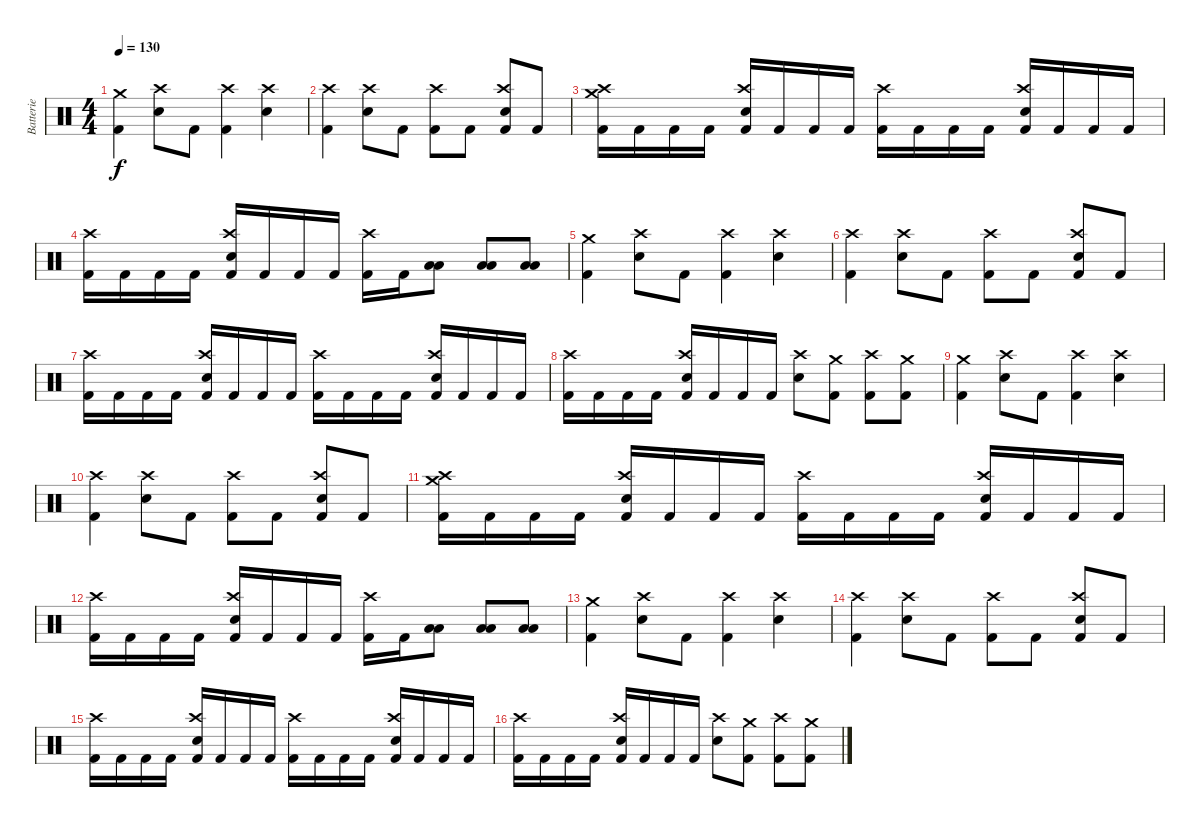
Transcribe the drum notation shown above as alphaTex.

\track ("Batterie" "Batterie") {instrument percussion}
\staff {score}
\articulation defaults
\ts (4 4)
\tempo 130
\clef neutral
\ks c
("Crash medium (hit)" "Kick (hit) 2").4{dy f} ("Crash high (hit)" "Electric Snare (hit)").8 "Kick (hit) 2".8 ("Crash high (hit)" "Kick (hit) 2").4 ("Crash high (hit)" "Electric Snare (hit)").4 |
("Crash high (hit)" "Kick (hit) 2").4 ("Crash high (hit)" "Electric Snare (hit)").8 "Kick (hit) 2".8 ("Crash high (hit)" "Kick (hit) 2").8 "Kick (hit) 2".8 ("Crash high (hit)" "Electric Snare (hit)" "Kick (hit) 2").8 "Kick (hit) 2".8 |
("Crash medium (hit)" "Crash high (hit)" "Kick (hit) 2").16 "Kick (hit) 2".16 "Kick (hit) 2".16 "Kick (hit) 2".16 ("Crash high (hit)" "Electric Snare (hit)" "Kick (hit) 2").16 "Kick (hit) 2".16 "Kick (hit) 2".16 "Kick (hit) 2".16 ("Crash high (hit)" "Kick (hit) 2").16 "Kick (hit) 2".16 "Kick (hit) 2".16 "Kick (hit) 2".16 ("Crash high (hit)" "Electric Snare (hit)" "Kick (hit) 2").16 "Kick (hit) 2".16 "Kick (hit) 2".16 "Kick (hit) 2".16 |
("Crash high (hit)" "Kick (hit) 2").16 "Kick (hit) 2".16 "Kick (hit) 2".16 "Kick (hit) 2".16 ("Crash high (hit)" "Electric Snare (hit)" "Kick (hit) 2").16 "Kick (hit) 2".16 "Kick (hit) 2".16 "Kick (hit) 2".16 ("Crash high (hit)" "Kick (hit) 2").16 "Kick (hit) 2".16 ("Low Tom (hit)" "Low Floor Tom (hit)").8{bu 60} ("Low Tom (hit)" "Low Floor Tom (hit)").8{bu 60} ("Low Tom (hit)" "Low Floor Tom (hit)").8{bu 60} |
("Crash medium (hit)" "Kick (hit) 2").4 ("Crash high (hit)" "Electric Snare (hit)").8 "Kick (hit) 2".8 ("Crash high (hit)" "Kick (hit) 2").4 ("Crash high (hit)" "Electric Snare (hit)").4 |
("Crash high (hit)" "Kick (hit) 2").4 ("Crash high (hit)" "Electric Snare (hit)").8 "Kick (hit) 2".8 ("Crash high (hit)" "Kick (hit) 2").8 "Kick (hit) 2".8 ("Crash high (hit)" "Electric Snare (hit)" "Kick (hit) 2").8 "Kick (hit) 2".8 |
("Crash high (hit)" "Kick (hit) 2").16 "Kick (hit) 2".16 "Kick (hit) 2".16 "Kick (hit) 2".16 ("Crash high (hit)" "Electric Snare (hit)" "Kick (hit) 2").16 "Kick (hit) 2".16 "Kick (hit) 2".16 "Kick (hit) 2".16 ("Crash high (hit)" "Kick (hit) 2").16 "Kick (hit) 2".16 "Kick (hit) 2".16 "Kick (hit) 2".16 ("Crash high (hit)" "Electric Snare (hit)" "Kick (hit) 2").16 "Kick (hit) 2".16 "Kick (hit) 2".16 "Kick (hit) 2".16 |
("Crash high (hit)" "Kick (hit) 2").16 "Kick (hit) 2".16 "Kick (hit) 2".16 "Kick (hit) 2".16 ("Crash high (hit)" "Electric Snare (hit)" "Kick (hit) 2").16 "Kick (hit) 2".16 "Kick (hit) 2".16 "Kick (hit) 2".16 ("Crash high (hit)" "Electric Snare (hit)").8 ("Crash medium (hit)" "Kick (hit) 2").8 ("Crash high (hit)" "Kick (hit) 2").8 ("Crash medium (hit)" "Kick (hit) 2").8 |
("Crash medium (hit)" "Kick (hit) 2").4 ("Crash high (hit)" "Electric Snare (hit)").8 "Kick (hit) 2".8 ("Crash high (hit)" "Kick (hit) 2").4 ("Crash high (hit)" "Electric Snare (hit)").4 |
("Crash high (hit)" "Kick (hit) 2").4 ("Crash high (hit)" "Electric Snare (hit)").8 "Kick (hit) 2".8 ("Crash high (hit)" "Kick (hit) 2").8 "Kick (hit) 2".8 ("Crash high (hit)" "Electric Snare (hit)" "Kick (hit) 2").8 "Kick (hit) 2".8 |
("Crash medium (hit)" "Crash high (hit)" "Kick (hit) 2").16 "Kick (hit) 2".16 "Kick (hit) 2".16 "Kick (hit) 2".16 ("Crash high (hit)" "Electric Snare (hit)" "Kick (hit) 2").16 "Kick (hit) 2".16 "Kick (hit) 2".16 "Kick (hit) 2".16 ("Crash high (hit)" "Kick (hit) 2").16 "Kick (hit) 2".16 "Kick (hit) 2".16 "Kick (hit) 2".16 ("Crash high (hit)" "Electric Snare (hit)" "Kick (hit) 2").16 "Kick (hit) 2".16 "Kick (hit) 2".16 "Kick (hit) 2".16 |
("Crash high (hit)" "Kick (hit) 2").16 "Kick (hit) 2".16 "Kick (hit) 2".16 "Kick (hit) 2".16 ("Crash high (hit)" "Electric Snare (hit)" "Kick (hit) 2").16 "Kick (hit) 2".16 "Kick (hit) 2".16 "Kick (hit) 2".16 ("Crash high (hit)" "Kick (hit) 2").16 "Kick (hit) 2".16 ("Low Tom (hit)" "Low Floor Tom (hit)").8{bu 60} ("Low Tom (hit)" "Low Floor Tom (hit)").8{bu 60} ("Low Tom (hit)" "Low Floor Tom (hit)").8{bu 60} |
("Crash medium (hit)" "Kick (hit) 2").4 ("Crash high (hit)" "Electric Snare (hit)").8 "Kick (hit) 2".8 ("Crash high (hit)" "Kick (hit) 2").4 ("Crash high (hit)" "Electric Snare (hit)").4 |
("Crash high (hit)" "Kick (hit) 2").4 ("Crash high (hit)" "Electric Snare (hit)").8 "Kick (hit) 2".8 ("Crash high (hit)" "Kick (hit) 2").8 "Kick (hit) 2".8 ("Crash high (hit)" "Electric Snare (hit)" "Kick (hit) 2").8 "Kick (hit) 2".8 |
("Crash high (hit)" "Kick (hit) 2").16 "Kick (hit) 2".16 "Kick (hit) 2".16 "Kick (hit) 2".16 ("Crash high (hit)" "Electric Snare (hit)" "Kick (hit) 2").16 "Kick (hit) 2".16 "Kick (hit) 2".16 "Kick (hit) 2".16 ("Crash high (hit)" "Kick (hit) 2").16 "Kick (hit) 2".16 "Kick (hit) 2".16 "Kick (hit) 2".16 ("Crash high (hit)" "Electric Snare (hit)" "Kick (hit) 2").16 "Kick (hit) 2".16 "Kick (hit) 2".16 "Kick (hit) 2".16 |
("Crash high (hit)" "Kick (hit) 2").16 "Kick (hit) 2".16 "Kick (hit) 2".16 "Kick (hit) 2".16 ("Crash high (hit)" "Electric Snare (hit)" "Kick (hit) 2").16 "Kick (hit) 2".16 "Kick (hit) 2".16 "Kick (hit) 2".16 ("Crash high (hit)" "Electric Snare (hit)").8 ("Crash medium (hit)" "Kick (hit) 2").8 ("Crash high (hit)" "Kick (hit) 2").8 ("Crash medium (hit)" "Kick (hit) 2").8
